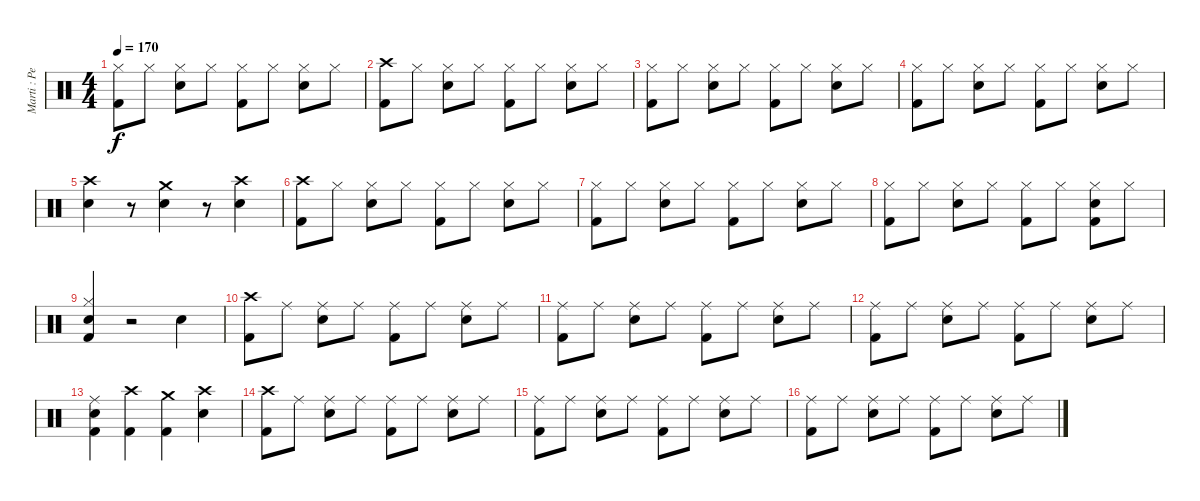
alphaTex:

\track ("Marti : Percussion" "Marti : Pe") {instrument percussion}
\staff {score}
\articulation defaults
\ts (4 4)
\tempo 170
\clef neutral
\ks c
("Kick (hit) 2" "Hi-Hat (closed)").8{dy f} "Hi-Hat (closed)".8 ("Electric Snare (hit)" "Hi-Hat (closed)").8 "Hi-Hat (closed)".8 ("Kick (hit) 2" "Hi-Hat (closed)").8 "Hi-Hat (closed)".8 ("Electric Snare (hit)" "Hi-Hat (closed)").8 "Hi-Hat (closed)".8 |
("Kick (hit) 2" "Crash high (hit)").8 "Hi-Hat (closed)".8 ("Electric Snare (hit)" "Hi-Hat (closed)").8 "Hi-Hat (closed)".8 ("Kick (hit) 2" "Hi-Hat (closed)").8 "Hi-Hat (closed)".8 ("Electric Snare (hit)" "Hi-Hat (closed)").8 "Hi-Hat (closed)".8 |
("Kick (hit) 2" "Hi-Hat (closed)").8 "Hi-Hat (closed)".8 ("Electric Snare (hit)" "Hi-Hat (closed)").8 "Hi-Hat (closed)".8 ("Kick (hit) 2" "Hi-Hat (closed)").8 "Hi-Hat (closed)".8 ("Electric Snare (hit)" "Hi-Hat (closed)").8 "Hi-Hat (closed)".8 |
("Kick (hit) 2" "Hi-Hat (closed)").8 "Hi-Hat (closed)".8 ("Electric Snare (hit)" "Hi-Hat (closed)").8 "Hi-Hat (closed)".8 ("Kick (hit) 2" "Hi-Hat (closed)").8 "Hi-Hat (closed)".8 ("Electric Snare (hit)" "Hi-Hat (closed)").8 "Hi-Hat (closed)".8 |
("Electric Snare (hit)" "Crash high (hit)").4 r.8 ("Electric Snare (hit)" "Crash medium (hit)").4 r.8 ("Electric Snare (hit)" "Crash high (hit)").4 |
("Kick (hit) 2" "Crash high (hit)").8 "Hi-Hat (closed)".8 ("Electric Snare (hit)" "Hi-Hat (closed)").8 "Hi-Hat (closed)".8 ("Kick (hit) 2" "Hi-Hat (closed)").8 "Hi-Hat (closed)".8 ("Electric Snare (hit)" "Hi-Hat (closed)").8 "Hi-Hat (closed)".8 |
("Kick (hit) 2" "Hi-Hat (closed)").8 "Hi-Hat (closed)".8 ("Electric Snare (hit)" "Hi-Hat (closed)").8 "Hi-Hat (closed)".8 ("Kick (hit) 2" "Hi-Hat (closed)").8 "Hi-Hat (closed)".8 ("Electric Snare (hit)" "Hi-Hat (closed)").8 "Hi-Hat (closed)".8 |
("Kick (hit) 2" "Hi-Hat (closed)").8 "Hi-Hat (closed)".8 ("Electric Snare (hit)" "Hi-Hat (closed)").8 "Hi-Hat (closed)".8 ("Kick (hit) 2" "Hi-Hat (closed)").8 "Hi-Hat (closed)".8 ("Kick (hit) 2" "Electric Snare (hit)" "Hi-Hat (closed)").8 "Hi-Hat (closed)".8 |
("Kick (hit) 2" "Electric Snare (hit)" "Hi-Hat (closed)").4 r.2 "Electric Snare (hit)".4 |
("Kick (hit) 2" "Crash high (hit)").8 "Ride (middle)".8 ("Electric Snare (hit)" "Ride (middle)").8 "Ride (middle)".8 ("Kick (hit) 2" "Ride (middle)").8 "Ride (middle)".8 ("Electric Snare (hit)" "Ride (middle)").8 "Ride (middle)".8 |
("Kick (hit) 2" "Ride (middle)").8 "Ride (middle)".8 ("Electric Snare (hit)" "Ride (middle)").8 "Ride (middle)".8 ("Kick (hit) 2" "Ride (middle)").8 "Ride (middle)".8 ("Electric Snare (hit)" "Ride (middle)").8 "Ride (middle)".8 |
("Kick (hit) 2" "Ride (middle)").8 "Ride (middle)".8 ("Electric Snare (hit)" "Ride (middle)").8 "Ride (middle)".8 ("Kick (hit) 2" "Ride (middle)").8 "Ride (middle)".8 ("Electric Snare (hit)" "Ride (middle)").8 "Ride (middle)".8 |
("Kick (hit) 2" "Electric Snare (hit)" "Ride (middle)").4 ("Kick (hit) 2" "Crash high (hit)").4 ("Kick (hit) 2" "Crash medium (hit)").4 ("Electric Snare (hit)" "Crash high (hit)").4 |
("Kick (hit) 2" "Crash high (hit)").8 "Ride (middle)".8 ("Electric Snare (hit)" "Ride (middle)").8 "Ride (middle)".8 ("Kick (hit) 2" "Ride (middle)").8 "Ride (middle)".8 ("Electric Snare (hit)" "Ride (middle)").8 "Ride (middle)".8 |
("Kick (hit) 2" "Ride (middle)").8 "Ride (middle)".8 ("Electric Snare (hit)" "Ride (middle)").8 "Ride (middle)".8 ("Kick (hit) 2" "Ride (middle)").8 "Ride (middle)".8 ("Electric Snare (hit)" "Ride (middle)").8 "Ride (middle)".8 |
("Kick (hit) 2" "Ride (middle)").8 "Ride (middle)".8 ("Electric Snare (hit)" "Ride (middle)").8 "Ride (middle)".8 ("Kick (hit) 2" "Ride (middle)").8 "Ride (middle)".8 ("Electric Snare (hit)" "Ride (middle)").8 "Ride (middle)".8
